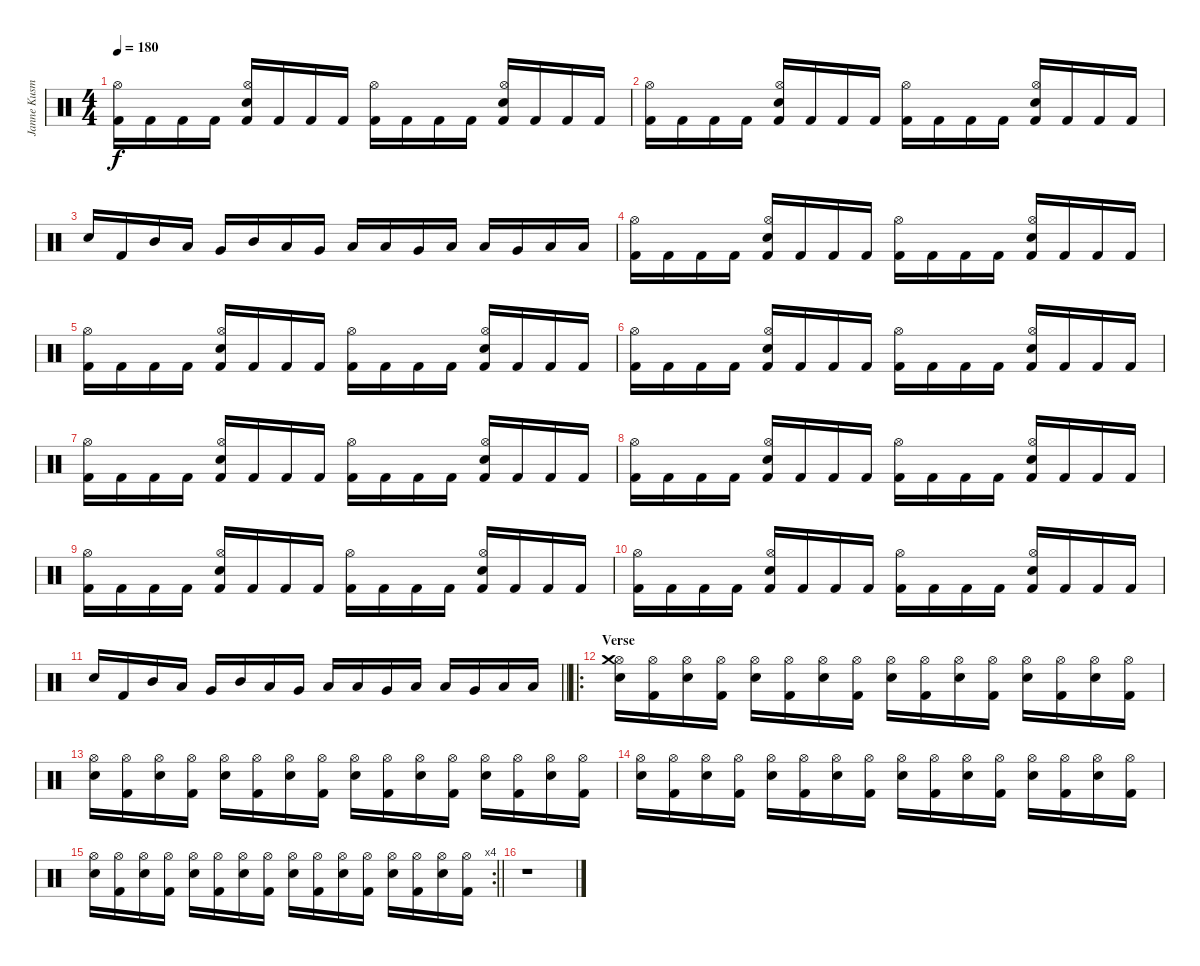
\track ("Janne Kusmin" "Janne Kusm") {instrument percussion}
\staff {score}
\articulation defaults
\ts (4 4)
\tempo 180
\clef neutral
\ks c
("Kick (hit) 2" "Hi-Hat (open)").16{dy f} "Kick (hit) 2".16 "Kick (hit) 2".16 "Kick (hit) 2".16 ("Kick (hit) 2" "Hi-Hat (open)" "Electric Snare (hit)").16 "Kick (hit) 2".16 "Kick (hit) 2".16 "Kick (hit) 2".16 ("Kick (hit) 2" "Hi-Hat (open)").16 "Kick (hit) 2".16 "Kick (hit) 2".16 "Kick (hit) 2".16 ("Kick (hit) 2" "Hi-Hat (open)" "Electric Snare (hit)").16 "Kick (hit) 2".16 "Kick (hit) 2".16 "Kick (hit) 2".16 |
("Kick (hit) 2" "Hi-Hat (open)").16 "Kick (hit) 2".16 "Kick (hit) 2".16 "Kick (hit) 2".16 ("Kick (hit) 2" "Hi-Hat (open)" "Electric Snare (hit)").16 "Kick (hit) 2".16 "Kick (hit) 2".16 "Kick (hit) 2".16 ("Kick (hit) 2" "Hi-Hat (open)").16 "Kick (hit) 2".16 "Kick (hit) 2".16 "Kick (hit) 2".16 ("Kick (hit) 2" "Hi-Hat (open)" "Electric Snare (hit)").16 "Kick (hit) 2".16 "Kick (hit) 2".16 "Kick (hit) 2".16 |
"Electric Snare (hit)".16 "Kick (hit) 2".16 "Mid Tom (hit)".16 "Low Tom (hit)".16 "Very Low Tom (hit)".16 "Mid Tom (hit)".16 "Low Tom (hit)".16 "Very Low Tom (hit)".16 "Low Floor Tom (hit)".16 "Low Tom (hit)".16 "Very Low Tom (hit)".16 "Low Floor Tom (hit)".16 "Low Floor Tom (hit)".16 "Very Low Tom (hit)".16 "Low Floor Tom (hit)".16 "Low Floor Tom (hit)".16 |
("Kick (hit) 2" "Hi-Hat (open)").16 "Kick (hit) 2".16 "Kick (hit) 2".16 "Kick (hit) 2".16 ("Kick (hit) 2" "Hi-Hat (open)" "Electric Snare (hit)").16 "Kick (hit) 2".16 "Kick (hit) 2".16 "Kick (hit) 2".16 ("Kick (hit) 2" "Hi-Hat (open)").16 "Kick (hit) 2".16 "Kick (hit) 2".16 "Kick (hit) 2".16 ("Kick (hit) 2" "Hi-Hat (open)" "Electric Snare (hit)").16 "Kick (hit) 2".16 "Kick (hit) 2".16 "Kick (hit) 2".16 |
("Kick (hit) 2" "Hi-Hat (open)").16 "Kick (hit) 2".16 "Kick (hit) 2".16 "Kick (hit) 2".16 ("Kick (hit) 2" "Hi-Hat (open)" "Electric Snare (hit)").16 "Kick (hit) 2".16 "Kick (hit) 2".16 "Kick (hit) 2".16 ("Kick (hit) 2" "Hi-Hat (open)").16 "Kick (hit) 2".16 "Kick (hit) 2".16 "Kick (hit) 2".16 ("Kick (hit) 2" "Hi-Hat (open)" "Electric Snare (hit)").16 "Kick (hit) 2".16 "Kick (hit) 2".16 "Kick (hit) 2".16 |
("Kick (hit) 2" "Hi-Hat (open)").16 "Kick (hit) 2".16 "Kick (hit) 2".16 "Kick (hit) 2".16 ("Kick (hit) 2" "Hi-Hat (open)" "Electric Snare (hit)").16 "Kick (hit) 2".16 "Kick (hit) 2".16 "Kick (hit) 2".16 ("Kick (hit) 2" "Hi-Hat (open)").16 "Kick (hit) 2".16 "Kick (hit) 2".16 "Kick (hit) 2".16 ("Kick (hit) 2" "Hi-Hat (open)" "Electric Snare (hit)").16 "Kick (hit) 2".16 "Kick (hit) 2".16 "Kick (hit) 2".16 |
("Kick (hit) 2" "Hi-Hat (open)").16 "Kick (hit) 2".16 "Kick (hit) 2".16 "Kick (hit) 2".16 ("Kick (hit) 2" "Hi-Hat (open)" "Electric Snare (hit)").16 "Kick (hit) 2".16 "Kick (hit) 2".16 "Kick (hit) 2".16 ("Kick (hit) 2" "Hi-Hat (open)").16 "Kick (hit) 2".16 "Kick (hit) 2".16 "Kick (hit) 2".16 ("Kick (hit) 2" "Hi-Hat (open)" "Electric Snare (hit)").16 "Kick (hit) 2".16 "Kick (hit) 2".16 "Kick (hit) 2".16 |
("Kick (hit) 2" "Hi-Hat (open)").16 "Kick (hit) 2".16 "Kick (hit) 2".16 "Kick (hit) 2".16 ("Kick (hit) 2" "Hi-Hat (open)" "Electric Snare (hit)").16 "Kick (hit) 2".16 "Kick (hit) 2".16 "Kick (hit) 2".16 ("Kick (hit) 2" "Hi-Hat (open)").16 "Kick (hit) 2".16 "Kick (hit) 2".16 "Kick (hit) 2".16 ("Kick (hit) 2" "Hi-Hat (open)" "Electric Snare (hit)").16 "Kick (hit) 2".16 "Kick (hit) 2".16 "Kick (hit) 2".16 |
("Kick (hit) 2" "Hi-Hat (open)").16 "Kick (hit) 2".16 "Kick (hit) 2".16 "Kick (hit) 2".16 ("Kick (hit) 2" "Hi-Hat (open)" "Electric Snare (hit)").16 "Kick (hit) 2".16 "Kick (hit) 2".16 "Kick (hit) 2".16 ("Kick (hit) 2" "Hi-Hat (open)").16 "Kick (hit) 2".16 "Kick (hit) 2".16 "Kick (hit) 2".16 ("Kick (hit) 2" "Hi-Hat (open)" "Electric Snare (hit)").16 "Kick (hit) 2".16 "Kick (hit) 2".16 "Kick (hit) 2".16 |
("Kick (hit) 2" "Hi-Hat (open)").16 "Kick (hit) 2".16 "Kick (hit) 2".16 "Kick (hit) 2".16 ("Kick (hit) 2" "Hi-Hat (open)" "Electric Snare (hit)").16 "Kick (hit) 2".16 "Kick (hit) 2".16 "Kick (hit) 2".16 ("Kick (hit) 2" "Hi-Hat (open)").16 "Kick (hit) 2".16 "Kick (hit) 2".16 "Kick (hit) 2".16 ("Kick (hit) 2" "Hi-Hat (open)" "Electric Snare (hit)").16 "Kick (hit) 2".16 "Kick (hit) 2".16 "Kick (hit) 2".16 |
\barLineRight lightlight "Electric Snare (hit)".16 "Kick (hit) 2".16 "Mid Tom (hit)".16 "Low Tom (hit)".16 "Very Low Tom (hit)".16 "Mid Tom (hit)".16 "Low Tom (hit)".16 "Very Low Tom (hit)".16 "Low Floor Tom (hit)".16 "Low Tom (hit)".16 "Very Low Tom (hit)".16 "Low Floor Tom (hit)".16 "Low Floor Tom (hit)".16 "Very Low Tom (hit)".16 "Low Floor Tom (hit)".16 "Low Floor Tom (hit)".16
|
\ro
\section ("" "Verse")
("Electric Snare (hit)" "Hi-Hat (open)" "Crash medium (hit)").16 ("Kick (hit) 2" "Hi-Hat (open)").16 ("Electric Snare (hit)" "Hi-Hat (open)").16 ("Kick (hit) 2" "Hi-Hat (open)").16 ("Electric Snare (hit)" "Hi-Hat (open)").16 ("Kick (hit) 2" "Hi-Hat (open)").16 ("Electric Snare (hit)" "Hi-Hat (open)").16 ("Kick (hit) 2" "Hi-Hat (open)").16 ("Electric Snare (hit)" "Hi-Hat (open)").16 ("Kick (hit) 2" "Hi-Hat (open)").16 ("Electric Snare (hit)" "Hi-Hat (open)").16 ("Kick (hit) 2" "Hi-Hat (open)").16 ("Electric Snare (hit)" "Hi-Hat (open)").16 ("Kick (hit) 2" "Hi-Hat (open)").16 ("Electric Snare (hit)" "Hi-Hat (open)").16 ("Kick (hit) 2" "Hi-Hat (open)").16 |
("Electric Snare (hit)" "Hi-Hat (open)").16 ("Kick (hit) 2" "Hi-Hat (open)").16 ("Electric Snare (hit)" "Hi-Hat (open)").16 ("Kick (hit) 2" "Hi-Hat (open)").16 ("Electric Snare (hit)" "Hi-Hat (open)").16 ("Kick (hit) 2" "Hi-Hat (open)").16 ("Electric Snare (hit)" "Hi-Hat (open)").16 ("Kick (hit) 2" "Hi-Hat (open)").16 ("Electric Snare (hit)" "Hi-Hat (open)").16 ("Kick (hit) 2" "Hi-Hat (open)").16 ("Electric Snare (hit)" "Hi-Hat (open)").16 ("Kick (hit) 2" "Hi-Hat (open)").16 ("Electric Snare (hit)" "Hi-Hat (open)").16 ("Kick (hit) 2" "Hi-Hat (open)").16 ("Electric Snare (hit)" "Hi-Hat (open)").16 ("Kick (hit) 2" "Hi-Hat (open)").16 |
("Electric Snare (hit)" "Hi-Hat (open)").16 ("Kick (hit) 2" "Hi-Hat (open)").16 ("Electric Snare (hit)" "Hi-Hat (open)").16 ("Kick (hit) 2" "Hi-Hat (open)").16 ("Electric Snare (hit)" "Hi-Hat (open)").16 ("Kick (hit) 2" "Hi-Hat (open)").16 ("Electric Snare (hit)" "Hi-Hat (open)").16 ("Kick (hit) 2" "Hi-Hat (open)").16 ("Electric Snare (hit)" "Hi-Hat (open)").16 ("Kick (hit) 2" "Hi-Hat (open)").16 ("Electric Snare (hit)" "Hi-Hat (open)").16 ("Kick (hit) 2" "Hi-Hat (open)").16 ("Electric Snare (hit)" "Hi-Hat (open)").16 ("Kick (hit) 2" "Hi-Hat (open)").16 ("Electric Snare (hit)" "Hi-Hat (open)").16 ("Kick (hit) 2" "Hi-Hat (open)").16 |
\rc 4
\barLineRight lightlight
("Electric Snare (hit)" "Hi-Hat (open)").16 ("Kick (hit) 2" "Hi-Hat (open)").16 ("Electric Snare (hit)" "Hi-Hat (open)").16 ("Kick (hit) 2" "Hi-Hat (open)").16 ("Electric Snare (hit)" "Hi-Hat (open)").16 ("Kick (hit) 2" "Hi-Hat (open)").16 ("Electric Snare (hit)" "Hi-Hat (open)").16 ("Kick (hit) 2" "Hi-Hat (open)").16 ("Electric Snare (hit)" "Hi-Hat (open)").16 ("Kick (hit) 2" "Hi-Hat (open)").16 ("Electric Snare (hit)" "Hi-Hat (open)").16 ("Kick (hit) 2" "Hi-Hat (open)").16 ("Electric Snare (hit)" "Hi-Hat (open)").16 ("Kick (hit) 2" "Hi-Hat (open)").16 ("Electric Snare (hit)" "Hi-Hat (open)").16 ("Kick (hit) 2" "Hi-Hat (open)").16 |
r.1
